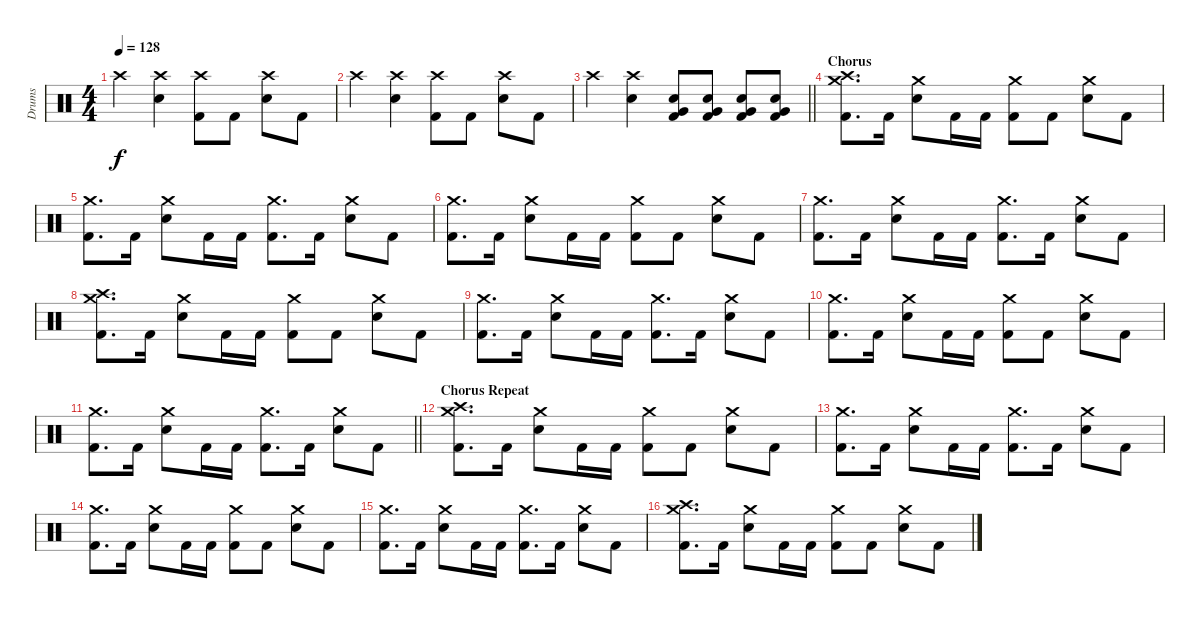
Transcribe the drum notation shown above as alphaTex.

\track ("Drums" "Drums") {instrument percussion}
\staff {score}
\articulation defaults
\ts (4 4)
\tempo 128
\clef neutral
\ks c "Crash high (hit)".4{dy f}
("Snare (hit) 2" "Crash high (hit)").4 ("Kick (hit) 2" "Crash high (hit)").8 "Kick (hit) 2".8 ("Snare (hit) 2" "Crash high (hit)").8 "Kick (hit) 2".8 |
"Crash high (hit)".4 ("Snare (hit) 2" "Crash high (hit)").4 ("Kick (hit) 2" "Crash high (hit)").8 "Kick (hit) 2".8 ("Snare (hit) 2" "Crash high (hit)").8 "Kick (hit) 2".8 |
\barLineRight lightlight "Crash high (hit)".4
("Snare (hit) 2" "Crash high (hit)").4 ("Kick (hit) 2" "Snare (hit) 2" "Very Low Tom (hit)").8 ("Kick (hit) 2" "Snare (hit) 2" "Very Low Tom (hit)").8 ("Kick (hit) 2" "Snare (hit) 2" "Very Low Tom (hit)").8 ("Kick (hit) 2" "Snare (hit) 2" "Very Low Tom (hit)").8 |
\section ("" "Chorus")
("Kick (hit) 2" "Crash high (hit)" "Crash medium (hit)").8{d} "Kick (hit) 2".16 ("Snare (hit) 2" "Crash medium (hit)").8 "Kick (hit) 2".16 "Kick (hit) 2".16 ("Kick (hit) 2" "Crash medium (hit)").8 "Kick (hit) 2".8 ("Snare (hit) 2" "Crash medium (hit)").8 "Kick (hit) 2".8 |
("Kick (hit) 2" "Crash medium (hit)").8{d} "Kick (hit) 2".16 ("Snare (hit) 2" "Crash medium (hit)").8 "Kick (hit) 2".16 "Kick (hit) 2".16 ("Kick (hit) 2" "Crash medium (hit)").8{d} "Kick (hit) 2".16 ("Snare (hit) 2" "Crash medium (hit)").8 "Kick (hit) 2".8 |
("Kick (hit) 2" "Crash medium (hit)").8{d} "Kick (hit) 2".16 ("Snare (hit) 2" "Crash medium (hit)").8 "Kick (hit) 2".16 "Kick (hit) 2".16 ("Kick (hit) 2" "Crash medium (hit)").8 "Kick (hit) 2".8 ("Snare (hit) 2" "Crash medium (hit)").8 "Kick (hit) 2".8 |
("Kick (hit) 2" "Crash medium (hit)").8{d} "Kick (hit) 2".16 ("Snare (hit) 2" "Crash medium (hit)").8 "Kick (hit) 2".16 "Kick (hit) 2".16 ("Kick (hit) 2" "Crash medium (hit)").8{d} "Kick (hit) 2".16 ("Snare (hit) 2" "Crash medium (hit)").8 "Kick (hit) 2".8 |
("Kick (hit) 2" "Crash high (hit)" "Crash medium (hit)").8{d} "Kick (hit) 2".16 ("Snare (hit) 2" "Crash medium (hit)").8 "Kick (hit) 2".16 "Kick (hit) 2".16 ("Kick (hit) 2" "Crash medium (hit)").8 "Kick (hit) 2".8 ("Snare (hit) 2" "Crash medium (hit)").8 "Kick (hit) 2".8 |
("Kick (hit) 2" "Crash medium (hit)").8{d} "Kick (hit) 2".16 ("Snare (hit) 2" "Crash medium (hit)").8 "Kick (hit) 2".16 "Kick (hit) 2".16 ("Kick (hit) 2" "Crash medium (hit)").8{d} "Kick (hit) 2".16 ("Snare (hit) 2" "Crash medium (hit)").8 "Kick (hit) 2".8 |
("Kick (hit) 2" "Crash medium (hit)").8{d} "Kick (hit) 2".16 ("Snare (hit) 2" "Crash medium (hit)").8 "Kick (hit) 2".16 "Kick (hit) 2".16 ("Kick (hit) 2" "Crash medium (hit)").8 "Kick (hit) 2".8 ("Snare (hit) 2" "Crash medium (hit)").8 "Kick (hit) 2".8 |
\barLineRight lightlight
("Kick (hit) 2" "Crash medium (hit)").8{d} "Kick (hit) 2".16 ("Snare (hit) 2" "Crash medium (hit)").8 "Kick (hit) 2".16 "Kick (hit) 2".16 ("Kick (hit) 2" "Crash medium (hit)").8{d} "Kick (hit) 2".16 ("Snare (hit) 2" "Crash medium (hit)").8 "Kick (hit) 2".8 |
\section ("" "Chorus Repeat")
("Kick (hit) 2" "Crash high (hit)" "Crash medium (hit)").8{d} "Kick (hit) 2".16 ("Snare (hit) 2" "Crash medium (hit)").8 "Kick (hit) 2".16 "Kick (hit) 2".16 ("Kick (hit) 2" "Crash medium (hit)").8 "Kick (hit) 2".8 ("Snare (hit) 2" "Crash medium (hit)").8 "Kick (hit) 2".8 |
("Kick (hit) 2" "Crash medium (hit)").8{d} "Kick (hit) 2".16 ("Snare (hit) 2" "Crash medium (hit)").8 "Kick (hit) 2".16 "Kick (hit) 2".16 ("Kick (hit) 2" "Crash medium (hit)").8{d} "Kick (hit) 2".16 ("Snare (hit) 2" "Crash medium (hit)").8 "Kick (hit) 2".8 |
("Kick (hit) 2" "Crash medium (hit)").8{d} "Kick (hit) 2".16 ("Snare (hit) 2" "Crash medium (hit)").8 "Kick (hit) 2".16 "Kick (hit) 2".16 ("Kick (hit) 2" "Crash medium (hit)").8 "Kick (hit) 2".8 ("Snare (hit) 2" "Crash medium (hit)").8 "Kick (hit) 2".8 |
("Kick (hit) 2" "Crash medium (hit)").8{d} "Kick (hit) 2".16 ("Snare (hit) 2" "Crash medium (hit)").8 "Kick (hit) 2".16 "Kick (hit) 2".16 ("Kick (hit) 2" "Crash medium (hit)").8{d} "Kick (hit) 2".16 ("Snare (hit) 2" "Crash medium (hit)").8 "Kick (hit) 2".8 |
("Kick (hit) 2" "Crash high (hit)" "Crash medium (hit)").8{d} "Kick (hit) 2".16 ("Snare (hit) 2" "Crash medium (hit)").8 "Kick (hit) 2".16 "Kick (hit) 2".16 ("Kick (hit) 2" "Crash medium (hit)").8 "Kick (hit) 2".8 ("Snare (hit) 2" "Crash medium (hit)").8 "Kick (hit) 2".8
